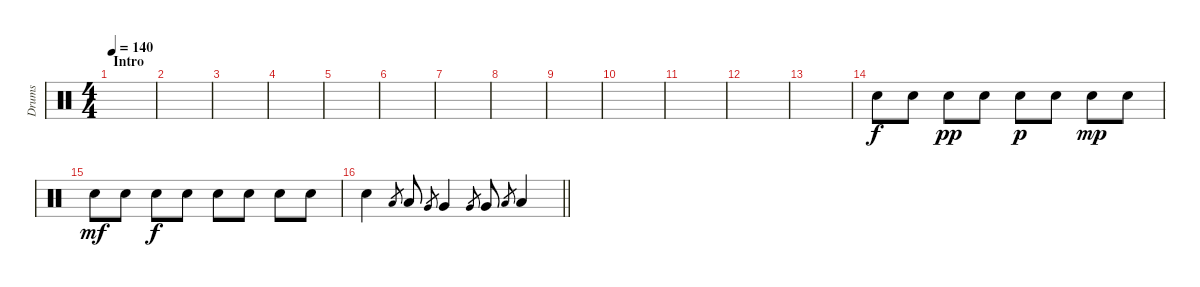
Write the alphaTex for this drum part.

\track ("Drums" "Drums") {instrument percussion}
\staff {score}
\articulation defaults
\ts (4 4)
\section ("" "Intro")
\tempo 140
\clef neutral
\ks c
|
|
|
|
|
|
|
|
|
|
|
|
|
"Snare (hit) 2".8 "Snare (hit) 2".8 "Snare (hit) 2".8{dy pp} "Snare (hit) 2".8 "Snare (hit) 2".8{dy p} "Snare (hit) 2".8 "Snare (hit) 2".8{dy mp} "Snare (hit) 2".8 |
"Snare (hit) 2".8{dy mf} "Snare (hit) 2".8 "Snare (hit) 2".8{dy f} "Snare (hit) 2".8 "Snare (hit) 2".8 "Snare (hit) 2".8 "Snare (hit) 2".8 "Snare (hit) 2".8 |
\barLineRight lightlight "Snare (hit) 2".4 "Low Tom (hit)".8{gr} "Low Tom (hit)".8 "Very Low Tom (hit)".8{gr} "Very Low Tom (hit)".4 "Very Low Tom (hit)".8{gr} "Very Low Tom (hit)".8 "Low Floor Tom (hit)".8{gr} "Low Floor Tom (hit)".4
